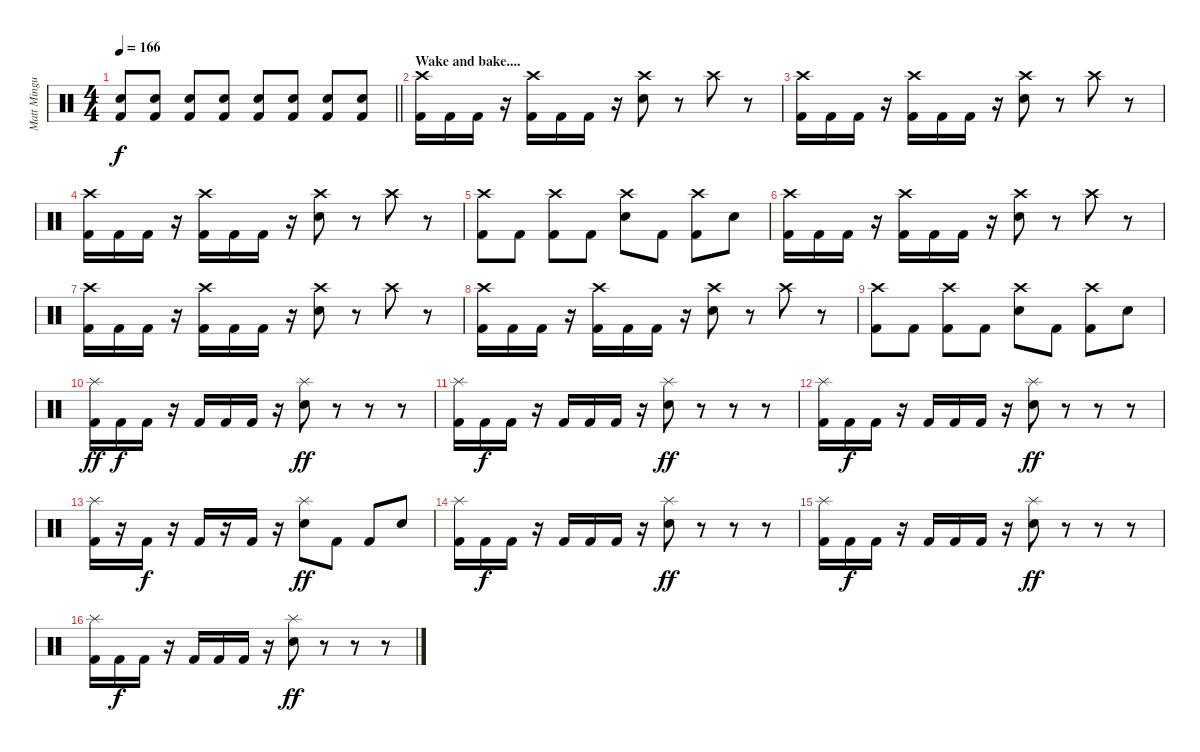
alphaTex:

\track ("Matt Mingus (Drum Kit)" "Matt Mingu") {instrument percussion}
\staff {score}
\articulation defaults
\ts (4 4)
\tempo 166
\clef neutral
\barLineRight lightlight
\ks c
("Electric Snare (hit)" "Kick (hit) 2").8{dy f} ("Electric Snare (hit)" "Kick (hit) 2").8 ("Electric Snare (hit)" "Kick (hit) 2").8 ("Electric Snare (hit)" "Kick (hit) 2").8 ("Electric Snare (hit)" "Kick (hit) 2").8 ("Electric Snare (hit)" "Kick (hit) 2").8 ("Electric Snare (hit)" "Kick (hit) 2").8 ("Electric Snare (hit)" "Kick (hit) 2").8 |
\section ("" "Wake and bake....")
("Crash high (hit)" "Kick (hit) 2").16 "Kick (hit) 2".16 "Kick (hit) 2".16 r.16 ("Crash high (hit)" "Kick (hit) 2").16 "Kick (hit) 2".16 "Kick (hit) 2".16 r.16 ("Crash high (hit)" "Electric Snare (hit)").8 r.8 "Crash high (hit)".8 r.8 |
("Crash high (hit)" "Kick (hit) 2").16 "Kick (hit) 2".16 "Kick (hit) 2".16 r.16 ("Crash high (hit)" "Kick (hit) 2").16 "Kick (hit) 2".16 "Kick (hit) 2".16 r.16 ("Crash high (hit)" "Electric Snare (hit)").8 r.8 "Crash high (hit)".8 r.8 |
("Crash high (hit)" "Kick (hit) 2").16 "Kick (hit) 2".16 "Kick (hit) 2".16 r.16 ("Crash high (hit)" "Kick (hit) 2").16 "Kick (hit) 2".16 "Kick (hit) 2".16 r.16 ("Crash high (hit)" "Electric Snare (hit)").8 r.8 "Crash high (hit)".8 r.8 |
("Crash high (hit)" "Kick (hit) 2").8 "Kick (hit) 2".8 ("Crash high (hit)" "Kick (hit) 2").8 "Kick (hit) 2".8 ("Crash high (hit)" "Electric Snare (hit)").8 "Kick (hit) 2".8 ("Crash high (hit)" "Kick (hit) 2").8 "Electric Snare (hit)".8 |
("Crash high (hit)" "Kick (hit) 2").16 "Kick (hit) 2".16 "Kick (hit) 2".16 r.16 ("Crash high (hit)" "Kick (hit) 2").16 "Kick (hit) 2".16 "Kick (hit) 2".16 r.16 ("Crash high (hit)" "Electric Snare (hit)").8 r.8 "Crash high (hit)".8 r.8 |
("Crash high (hit)" "Kick (hit) 2").16 "Kick (hit) 2".16 "Kick (hit) 2".16 r.16 ("Crash high (hit)" "Kick (hit) 2").16 "Kick (hit) 2".16 "Kick (hit) 2".16 r.16 ("Crash high (hit)" "Electric Snare (hit)").8 r.8 "Crash high (hit)".8 r.8 |
("Crash high (hit)" "Kick (hit) 2").16 "Kick (hit) 2".16 "Kick (hit) 2".16 r.16 ("Crash high (hit)" "Kick (hit) 2").16 "Kick (hit) 2".16 "Kick (hit) 2".16 r.16 ("Crash high (hit)" "Electric Snare (hit)").8 r.8 "Crash high (hit)".8 r.8 |
("Crash high (hit)" "Kick (hit) 2").8 "Kick (hit) 2".8 ("Crash high (hit)" "Kick (hit) 2").8 "Kick (hit) 2".8 ("Crash high (hit)" "Electric Snare (hit)").8 "Kick (hit) 2".8 ("Crash high (hit)" "Kick (hit) 2").8 "Electric Snare (hit)".8 |
("Splash (hit)" "Kick (hit) 2").16{dy ff} "Kick (hit) 2".16{dy f} "Kick (hit) 2".16 r.16 "Kick (hit) 2".16 "Kick (hit) 2".16 "Kick (hit) 2".16 r.16 ("Splash (hit)" "Electric Snare (hit)").8{dy ff} r.8 r.8 r.8 |
("Splash (hit)" "Kick (hit) 2").16 "Kick (hit) 2".16{dy f} "Kick (hit) 2".16 r.16 "Kick (hit) 2".16 "Kick (hit) 2".16 "Kick (hit) 2".16 r.16 ("Splash (hit)" "Electric Snare (hit)").8{dy ff} r.8 r.8 r.8 |
("Splash (hit)" "Kick (hit) 2").16 "Kick (hit) 2".16{dy f} "Kick (hit) 2".16 r.16 "Kick (hit) 2".16 "Kick (hit) 2".16 "Kick (hit) 2".16 r.16 ("Splash (hit)" "Electric Snare (hit)").8{dy ff} r.8 r.8 r.8 |
("Splash (hit)" "Kick (hit) 2").16 r.16 "Kick (hit) 2".16{dy f} r.16 "Kick (hit) 2".16 r.16 "Kick (hit) 2".16 r.16 ("Splash (hit)" "Electric Snare (hit)").8{dy ff} "Kick (hit) 2".8 "Kick (hit) 2".8 "Electric Snare (hit)".8 |
("Splash (hit)" "Kick (hit) 2").16 "Kick (hit) 2".16{dy f} "Kick (hit) 2".16 r.16 "Kick (hit) 2".16 "Kick (hit) 2".16 "Kick (hit) 2".16 r.16 ("Splash (hit)" "Electric Snare (hit)").8{dy ff} r.8 r.8 r.8 |
("Splash (hit)" "Kick (hit) 2").16 "Kick (hit) 2".16{dy f} "Kick (hit) 2".16 r.16 "Kick (hit) 2".16 "Kick (hit) 2".16 "Kick (hit) 2".16 r.16 ("Splash (hit)" "Electric Snare (hit)").8{dy ff} r.8 r.8 r.8 |
("Splash (hit)" "Kick (hit) 2").16 "Kick (hit) 2".16{dy f} "Kick (hit) 2".16 r.16 "Kick (hit) 2".16 "Kick (hit) 2".16 "Kick (hit) 2".16 r.16 ("Splash (hit)" "Electric Snare (hit)").8{dy ff} r.8 r.8 r.8
